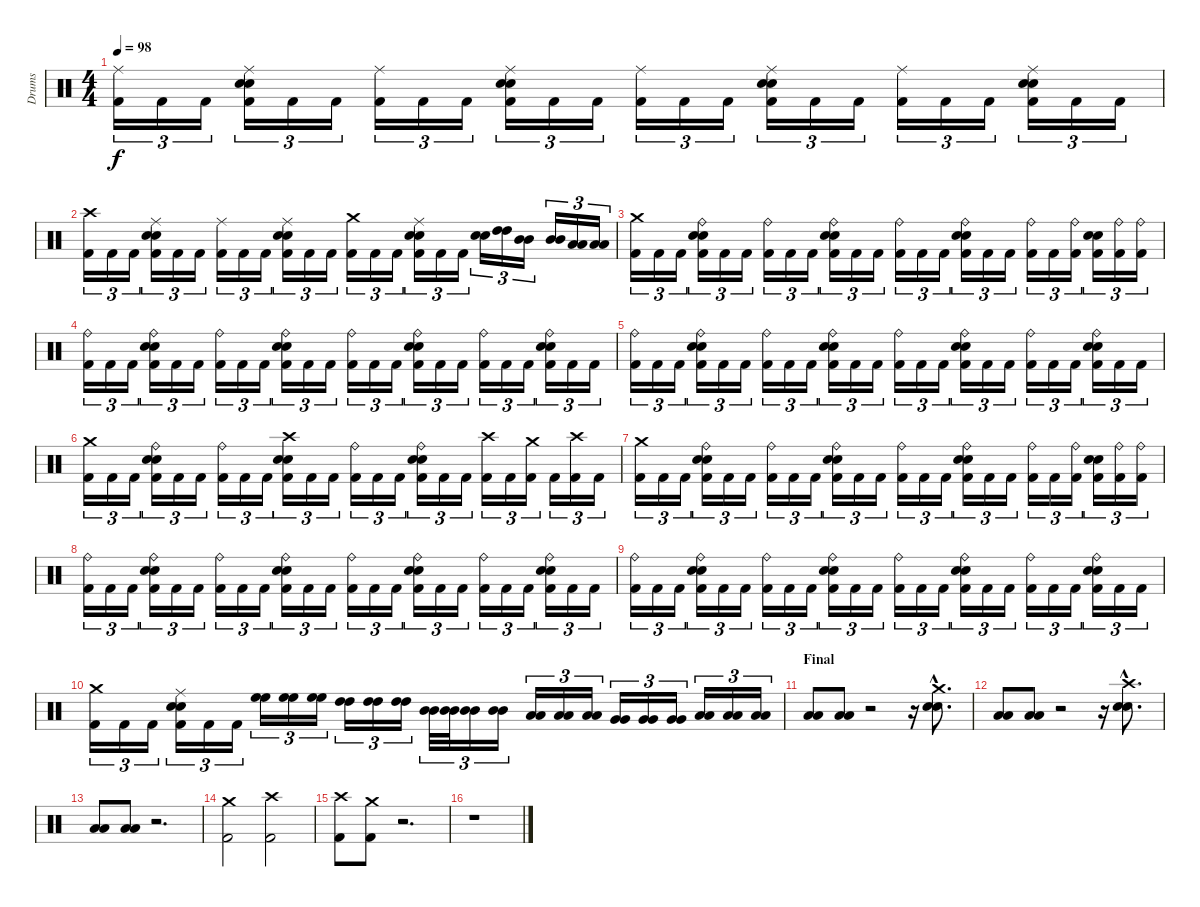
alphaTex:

\track ("Drums" "Drums") {instrument percussion}
\staff {score}
\articulation defaults
\ts (4 4)
\tempo 98
\clef neutral
\ks c
("Ride (middle)" "Kick (hit) 2").16{tu (3 2) dy f} "Kick (hit) 2".16{tu (3 2)} "Kick (hit) 2".16{tu (3 2)} ("Ride (middle)" "Snare (hit) 2" "Electric Snare (hit)" "Kick (hit) 2").16{tu (3 2)} "Kick (hit) 2".16{tu (3 2)} "Kick (hit) 2".16{tu (3 2)} ("Ride (middle)" "Kick (hit) 2").16{tu (3 2)} "Kick (hit) 2".16{tu (3 2)} "Kick (hit) 2".16{tu (3 2)} ("Ride (middle)" "Snare (hit) 2" "Electric Snare (hit)" "Kick (hit) 2").16{tu (3 2)} "Kick (hit) 2".16{tu (3 2)} "Kick (hit) 2".16{tu (3 2)} ("Ride (middle)" "Kick (hit) 2").16{tu (3 2)} "Kick (hit) 2".16{tu (3 2)} "Kick (hit) 2".16{tu (3 2)} ("Ride (middle)" "Snare (hit) 2" "Electric Snare (hit)" "Kick (hit) 2").16{tu (3 2)} "Kick (hit) 2".16{tu (3 2)} "Kick (hit) 2".16{tu (3 2)} ("Ride (middle)" "Kick (hit) 2").16{tu (3 2)} "Kick (hit) 2".16{tu (3 2)} "Kick (hit) 2".16{tu (3 2)} ("Ride (middle)" "Snare (hit) 2" "Electric Snare (hit)" "Kick (hit) 2").16{tu (3 2)} "Kick (hit) 2".16{tu (3 2)} "Kick (hit) 2".16{tu (3 2)} |
("Crash high (hit)" "Kick (hit) 2").16{tu (3 2)} "Kick (hit) 2".16{tu (3 2)} "Kick (hit) 2".16{tu (3 2)} ("Ride (middle)" "Snare (hit) 2" "Electric Snare (hit)" "Kick (hit) 2").16{tu (3 2)} "Kick (hit) 2".16{tu (3 2)} "Kick (hit) 2".16{tu (3 2)} ("Ride (middle)" "Kick (hit) 2").16{tu (3 2)} "Kick (hit) 2".16{tu (3 2)} "Kick (hit) 2".16{tu (3 2)} ("Ride (middle)" "Snare (hit) 2" "Electric Snare (hit)" "Kick (hit) 2").16{tu (3 2)} "Kick (hit) 2".16{tu (3 2)} "Kick (hit) 2".16{tu (3 2)} ("Crash medium (hit)" "Kick (hit) 2").16{tu (3 2)} "Kick (hit) 2".16{tu (3 2)} "Kick (hit) 2".16{tu (3 2)} ("Ride (middle)" "Snare (hit) 2" "Electric Snare (hit)" "Kick (hit) 2").16{tu (3 2)} "Kick (hit) 2".16{tu (3 2)} "Kick (hit) 2".16{tu (3 2)} ("Snare (hit) 2" "Electric Snare (hit)").16{tu (3 2)} ("High Tom (hit)" "High Tom (hit)").16{tu (3 2)} ("Mid Tom (hit)" "Mid Tom (hit)").16{tu (3 2)} ("Mid Tom (hit)" "Mid Tom (hit)").16{tu (3 2)} ("Low Tom (hit)" "Low Tom (hit)").16{tu (3 2)} ("Low Tom (hit)" "Low Tom (hit)").16{tu (3 2)} |
("Crash medium (hit)" "Kick (hit) 2").16{tu (3 2)} "Kick (hit) 2".16{tu (3 2)} "Kick (hit) 2".16{tu (3 2)} ("Ride (bell)" "Snare (hit) 2" "Electric Snare (hit)" "Kick (hit) 2").16{tu (3 2)} "Kick (hit) 2".16{tu (3 2)} "Kick (hit) 2".16{tu (3 2)} ("Ride (bell)" "Kick (hit) 2").16{tu (3 2)} "Kick (hit) 2".16{tu (3 2)} "Kick (hit) 2".16{tu (3 2)} ("Ride (bell)" "Snare (hit) 2" "Electric Snare (hit)" "Kick (hit) 2").16{tu (3 2)} "Kick (hit) 2".16{tu (3 2)} "Kick (hit) 2".16{tu (3 2)} ("Ride (bell)" "Kick (hit) 2").16{tu (3 2)} "Kick (hit) 2".16{tu (3 2)} "Kick (hit) 2".16{tu (3 2)} ("Ride (bell)" "Snare (hit) 2" "Electric Snare (hit)" "Kick (hit) 2").16{tu (3 2)} "Kick (hit) 2".16{tu (3 2)} "Kick (hit) 2".16{tu (3 2)} ("Ride (bell)" "Kick (hit) 2").16{tu (3 2)} "Kick (hit) 2".16{tu (3 2)} ("Ride (bell)" "Kick (hit) 2").16{tu (3 2)} ("Snare (hit) 2" "Electric Snare (hit)" "Kick (hit) 2").16{tu (3 2)} ("Ride (bell)" "Kick (hit) 2").16{tu (3 2)} ("Ride (bell)" "Kick (hit) 2").16{tu (3 2)} |
("Ride (bell)" "Kick (hit) 2").16{tu (3 2)} "Kick (hit) 2".16{tu (3 2)} "Kick (hit) 2".16{tu (3 2)} ("Ride (bell)" "Snare (hit) 2" "Electric Snare (hit)" "Kick (hit) 2").16{tu (3 2)} "Kick (hit) 2".16{tu (3 2)} "Kick (hit) 2".16{tu (3 2)} ("Ride (bell)" "Kick (hit) 2").16{tu (3 2)} "Kick (hit) 2".16{tu (3 2)} "Kick (hit) 2".16{tu (3 2)} ("Ride (bell)" "Snare (hit) 2" "Electric Snare (hit)" "Kick (hit) 2").16{tu (3 2)} "Kick (hit) 2".16{tu (3 2)} "Kick (hit) 2".16{tu (3 2)} ("Ride (bell)" "Kick (hit) 2").16{tu (3 2)} "Kick (hit) 2".16{tu (3 2)} "Kick (hit) 2".16{tu (3 2)} ("Ride (bell)" "Snare (hit) 2" "Electric Snare (hit)" "Kick (hit) 2").16{tu (3 2)} "Kick (hit) 2".16{tu (3 2)} "Kick (hit) 2".16{tu (3 2)} ("Ride (bell)" "Kick (hit) 2").16{tu (3 2)} "Kick (hit) 2".16{tu (3 2)} "Kick (hit) 2".16{tu (3 2)} ("Ride (bell)" "Snare (hit) 2" "Electric Snare (hit)" "Kick (hit) 2").16{tu (3 2)} "Kick (hit) 2".16{tu (3 2)} "Kick (hit) 2".16{tu (3 2)} |
("Ride (bell)" "Kick (hit) 2").16{tu (3 2)} "Kick (hit) 2".16{tu (3 2)} "Kick (hit) 2".16{tu (3 2)} ("Ride (bell)" "Snare (hit) 2" "Electric Snare (hit)" "Kick (hit) 2").16{tu (3 2)} "Kick (hit) 2".16{tu (3 2)} "Kick (hit) 2".16{tu (3 2)} ("Ride (bell)" "Kick (hit) 2").16{tu (3 2)} "Kick (hit) 2".16{tu (3 2)} "Kick (hit) 2".16{tu (3 2)} ("Ride (bell)" "Snare (hit) 2" "Electric Snare (hit)" "Kick (hit) 2").16{tu (3 2)} "Kick (hit) 2".16{tu (3 2)} "Kick (hit) 2".16{tu (3 2)} ("Ride (bell)" "Kick (hit) 2").16{tu (3 2)} "Kick (hit) 2".16{tu (3 2)} "Kick (hit) 2".16{tu (3 2)} ("Ride (bell)" "Snare (hit) 2" "Electric Snare (hit)" "Kick (hit) 2").16{tu (3 2)} "Kick (hit) 2".16{tu (3 2)} "Kick (hit) 2".16{tu (3 2)} ("Ride (bell)" "Kick (hit) 2").16{tu (3 2)} "Kick (hit) 2".16{tu (3 2)} "Kick (hit) 2".16{tu (3 2)} ("Ride (bell)" "Snare (hit) 2" "Electric Snare (hit)" "Kick (hit) 2").16{tu (3 2)} "Kick (hit) 2".16{tu (3 2)} "Kick (hit) 2".16{tu (3 2)} |
("Crash medium (hit)" "Kick (hit) 2").16{tu (3 2)} "Kick (hit) 2".16{tu (3 2)} "Kick (hit) 2".16{tu (3 2)} ("Ride (bell)" "Snare (hit) 2" "Electric Snare (hit)" "Kick (hit) 2").16{tu (3 2)} "Kick (hit) 2".16{tu (3 2)} "Kick (hit) 2".16{tu (3 2)} ("Ride (bell)" "Kick (hit) 2").16{tu (3 2)} "Kick (hit) 2".16{tu (3 2)} "Kick (hit) 2".16{tu (3 2)} ("Crash high (hit)" "Snare (hit) 2" "Electric Snare (hit)" "Kick (hit) 2").16{tu (3 2)} "Kick (hit) 2".16{tu (3 2)} "Kick (hit) 2".16{tu (3 2)} ("Ride (bell)" "Kick (hit) 2").16{tu (3 2)} "Kick (hit) 2".16{tu (3 2)} "Kick (hit) 2".16{tu (3 2)} ("Ride (bell)" "Snare (hit) 2" "Electric Snare (hit)" "Kick (hit) 2").16{tu (3 2)} "Kick (hit) 2".16{tu (3 2)} "Kick (hit) 2".16{tu (3 2)} ("Crash high (hit)" "Kick (hit) 2").16{tu (3 2)} "Kick (hit) 2".16{tu (3 2)} ("Crash medium (hit)" "Kick (hit) 2").16{tu (3 2)} "Kick (hit) 2".16{tu (3 2)} ("Crash high (hit)" "Kick (hit) 2").16{tu (3 2)} "Kick (hit) 2".16{tu (3 2)} |
("Crash medium (hit)" "Kick (hit) 2").16{tu (3 2)} "Kick (hit) 2".16{tu (3 2)} "Kick (hit) 2".16{tu (3 2)} ("Ride (bell)" "Snare (hit) 2" "Electric Snare (hit)" "Kick (hit) 2").16{tu (3 2)} "Kick (hit) 2".16{tu (3 2)} "Kick (hit) 2".16{tu (3 2)} ("Ride (bell)" "Kick (hit) 2").16{tu (3 2)} "Kick (hit) 2".16{tu (3 2)} "Kick (hit) 2".16{tu (3 2)} ("Ride (bell)" "Snare (hit) 2" "Electric Snare (hit)" "Kick (hit) 2").16{tu (3 2)} "Kick (hit) 2".16{tu (3 2)} "Kick (hit) 2".16{tu (3 2)} ("Ride (bell)" "Kick (hit) 2").16{tu (3 2)} "Kick (hit) 2".16{tu (3 2)} "Kick (hit) 2".16{tu (3 2)} ("Ride (bell)" "Snare (hit) 2" "Electric Snare (hit)" "Kick (hit) 2").16{tu (3 2)} "Kick (hit) 2".16{tu (3 2)} "Kick (hit) 2".16{tu (3 2)} ("Ride (bell)" "Kick (hit) 2").16{tu (3 2)} "Kick (hit) 2".16{tu (3 2)} ("Ride (bell)" "Kick (hit) 2").16{tu (3 2)} ("Snare (hit) 2" "Electric Snare (hit)" "Kick (hit) 2").16{tu (3 2)} ("Ride (bell)" "Kick (hit) 2").16{tu (3 2)} ("Ride (bell)" "Kick (hit) 2").16{tu (3 2)} |
("Ride (bell)" "Kick (hit) 2").16{tu (3 2)} "Kick (hit) 2".16{tu (3 2)} "Kick (hit) 2".16{tu (3 2)} ("Ride (bell)" "Snare (hit) 2" "Electric Snare (hit)" "Kick (hit) 2").16{tu (3 2)} "Kick (hit) 2".16{tu (3 2)} "Kick (hit) 2".16{tu (3 2)} ("Ride (bell)" "Kick (hit) 2").16{tu (3 2)} "Kick (hit) 2".16{tu (3 2)} "Kick (hit) 2".16{tu (3 2)} ("Ride (bell)" "Snare (hit) 2" "Electric Snare (hit)" "Kick (hit) 2").16{tu (3 2)} "Kick (hit) 2".16{tu (3 2)} "Kick (hit) 2".16{tu (3 2)} ("Ride (bell)" "Kick (hit) 2").16{tu (3 2)} "Kick (hit) 2".16{tu (3 2)} "Kick (hit) 2".16{tu (3 2)} ("Ride (bell)" "Snare (hit) 2" "Electric Snare (hit)" "Kick (hit) 2").16{tu (3 2)} "Kick (hit) 2".16{tu (3 2)} "Kick (hit) 2".16{tu (3 2)} ("Ride (bell)" "Kick (hit) 2").16{tu (3 2)} "Kick (hit) 2".16{tu (3 2)} "Kick (hit) 2".16{tu (3 2)} ("Ride (bell)" "Snare (hit) 2" "Electric Snare (hit)" "Kick (hit) 2").16{tu (3 2)} "Kick (hit) 2".16{tu (3 2)} "Kick (hit) 2".16{tu (3 2)} |
("Ride (bell)" "Kick (hit) 2").16{tu (3 2)} "Kick (hit) 2".16{tu (3 2)} "Kick (hit) 2".16{tu (3 2)} ("Ride (bell)" "Snare (hit) 2" "Electric Snare (hit)" "Kick (hit) 2").16{tu (3 2)} "Kick (hit) 2".16{tu (3 2)} "Kick (hit) 2".16{tu (3 2)} ("Ride (bell)" "Kick (hit) 2").16{tu (3 2)} "Kick (hit) 2".16{tu (3 2)} "Kick (hit) 2".16{tu (3 2)} ("Ride (bell)" "Snare (hit) 2" "Electric Snare (hit)" "Kick (hit) 2").16{tu (3 2)} "Kick (hit) 2".16{tu (3 2)} "Kick (hit) 2".16{tu (3 2)} ("Ride (bell)" "Kick (hit) 2").16{tu (3 2)} "Kick (hit) 2".16{tu (3 2)} "Kick (hit) 2".16{tu (3 2)} ("Ride (bell)" "Snare (hit) 2" "Electric Snare (hit)" "Kick (hit) 2").16{tu (3 2)} "Kick (hit) 2".16{tu (3 2)} "Kick (hit) 2".16{tu (3 2)} ("Ride (bell)" "Kick (hit) 2").16{tu (3 2)} "Kick (hit) 2".16{tu (3 2)} "Kick (hit) 2".16{tu (3 2)} ("Ride (bell)" "Snare (hit) 2" "Electric Snare (hit)" "Kick (hit) 2").16{tu (3 2)} "Kick (hit) 2".16{tu (3 2)} "Kick (hit) 2".16{tu (3 2)} |
("Crash medium (hit)" "Kick (hit) 2").16{tu (3 2)} "Kick (hit) 2".16{tu (3 2)} "Kick (hit) 2".16{tu (3 2)} ("Ride (middle)" "Snare (hit) 2" "Electric Snare (hit)" "Kick (hit) 2").16{tu (3 2)} "Kick (hit) 2".16{tu (3 2)} "Kick (hit) 2".16{tu (3 2)} ("High Floor Tom (hit)" "High Floor Tom (hit)").16{tu (3 2)} ("High Floor Tom (hit)" "High Floor Tom (hit)").16{tu (3 2)} ("High Floor Tom (hit)" "High Floor Tom (hit)").16{tu (3 2)} ("High Tom (hit)" "High Tom (hit)").16{tu (3 2)} ("High Tom (hit)" "High Tom (hit)").16{tu (3 2)} ("High Tom (hit)" "High Tom (hit)").16{tu (3 2)} ("Mid Tom (hit)" "Mid Tom (hit)").32{tu (3 2)} ("Mid Tom (hit)" "Mid Tom (hit)").32{tu (3 2)} ("Mid Tom (hit)" "Mid Tom (hit)").16{tu (3 2)} ("Mid Tom (hit)" "Mid Tom (hit)").16{tu (3 2)} ("Low Tom (hit)" "Low Tom (hit)").16{tu (3 2)} ("Low Tom (hit)" "Low Tom (hit)").16{tu (3 2)} ("Low Tom (hit)" "Low Tom (hit)").16{tu (3 2)} ("Very Low Tom (hit)" "Very Low Tom (hit)").16{tu (3 2)} ("Very Low Tom (hit)" "Very Low Tom (hit)").16{tu (3 2)} ("Very Low Tom (hit)" "Very Low Tom (hit)").16{tu (3 2)} ("Low Floor Tom (hit)" "Low Floor Tom (hit)").16{tu (3 2)} ("Low Floor Tom (hit)" "Low Floor Tom (hit)").16{tu (3 2)} ("Low Floor Tom (hit)" "Low Floor Tom (hit)").16{tu (3 2)} |
\section ("" "Final")
("Low Tom (hit)" "Low Floor Tom (hit)").8 ("Low Tom (hit)" "Low Floor Tom (hit)").8 r.2 r.16 ("Crash medium (hit)"{hac} "Snare (hit) 2"{hac} "Electric Snare (hit)"{hac}).8{d} |
("Low Tom (hit)" "Low Floor Tom (hit)").8 ("Low Tom (hit)" "Low Floor Tom (hit)").8 r.2 r.16 ("Crash high (hit)"{hac} "Snare (hit) 2"{hac} "Electric Snare (hit)"{hac}).8{d} |
("Low Tom (hit)" "Low Floor Tom (hit)").8 ("Low Tom (hit)" "Low Floor Tom (hit)").8 r.2{d} |
("Crash medium (hit)" "Kick (hit) 2").2 ("Crash high (hit)" "Kick (hit) 2").2 |
("Crash high (hit)" "Kick (hit) 2").8 ("Crash medium (hit)" "Kick (hit) 2").8 r.2{d} |
r.1
